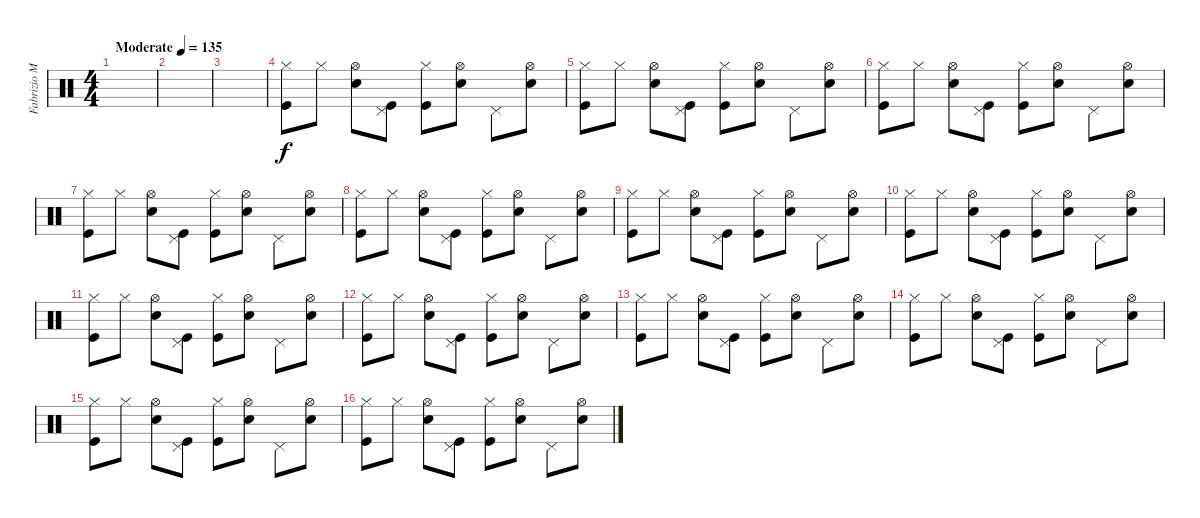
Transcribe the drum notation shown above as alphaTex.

\track ("Fabrizio Moretti" "Fabrizio M") {instrument percussion}
\staff {score}
\articulation defaults
\ts (4 4)
\tempo (135 "Moderate")
\clef neutral
\ks c
|
|
|
("Hi-Hat (closed)" "Kick (hit)").8 "Hi-Hat (closed)".8 ("Hi-Hat (open)" "Electric Snare (hit)").8 ("Pedal Hi-Hat (hit)" "Kick (hit)").8 ("Hi-Hat (closed)" "Kick (hit)").8 ("Hi-Hat (open)" "Electric Snare (hit)").8 "Pedal Hi-Hat (hit)".8 ("Hi-Hat (open)" "Electric Snare (hit)").8 |
("Hi-Hat (closed)" "Kick (hit)").8 "Hi-Hat (closed)".8 ("Hi-Hat (open)" "Electric Snare (hit)").8 ("Pedal Hi-Hat (hit)" "Kick (hit)").8 ("Hi-Hat (closed)" "Kick (hit)").8 ("Hi-Hat (open)" "Electric Snare (hit)").8 "Pedal Hi-Hat (hit)".8 ("Hi-Hat (open)" "Electric Snare (hit)").8 |
("Hi-Hat (closed)" "Kick (hit)").8 "Hi-Hat (closed)".8 ("Hi-Hat (open)" "Electric Snare (hit)").8 ("Pedal Hi-Hat (hit)" "Kick (hit)").8 ("Hi-Hat (closed)" "Kick (hit)").8 ("Hi-Hat (open)" "Electric Snare (hit)").8 "Pedal Hi-Hat (hit)".8 ("Hi-Hat (open)" "Electric Snare (hit)").8 |
("Hi-Hat (closed)" "Kick (hit)").8 "Hi-Hat (closed)".8 ("Hi-Hat (open)" "Electric Snare (hit)").8 ("Pedal Hi-Hat (hit)" "Kick (hit)").8 ("Hi-Hat (closed)" "Kick (hit)").8 ("Hi-Hat (open)" "Electric Snare (hit)").8 "Pedal Hi-Hat (hit)".8 ("Hi-Hat (open)" "Electric Snare (hit)").8 |
("Hi-Hat (closed)" "Kick (hit)").8 "Hi-Hat (closed)".8 ("Hi-Hat (open)" "Electric Snare (hit)").8 ("Pedal Hi-Hat (hit)" "Kick (hit)").8 ("Hi-Hat (closed)" "Kick (hit)").8 ("Hi-Hat (open)" "Electric Snare (hit)").8 "Pedal Hi-Hat (hit)".8 ("Hi-Hat (open)" "Electric Snare (hit)").8 |
("Hi-Hat (closed)" "Kick (hit)").8 "Hi-Hat (closed)".8 ("Hi-Hat (open)" "Electric Snare (hit)").8 ("Pedal Hi-Hat (hit)" "Kick (hit)").8 ("Hi-Hat (closed)" "Kick (hit)").8 ("Hi-Hat (open)" "Electric Snare (hit)").8 "Pedal Hi-Hat (hit)".8 ("Hi-Hat (open)" "Electric Snare (hit)").8 |
("Hi-Hat (closed)" "Kick (hit)").8 "Hi-Hat (closed)".8 ("Hi-Hat (open)" "Electric Snare (hit)").8 ("Pedal Hi-Hat (hit)" "Kick (hit)").8 ("Hi-Hat (closed)" "Kick (hit)").8 ("Hi-Hat (open)" "Electric Snare (hit)").8 "Pedal Hi-Hat (hit)".8 ("Hi-Hat (open)" "Electric Snare (hit)").8 |
("Hi-Hat (closed)" "Kick (hit)").8 "Hi-Hat (closed)".8 ("Hi-Hat (open)" "Electric Snare (hit)").8 ("Pedal Hi-Hat (hit)" "Kick (hit)").8 ("Hi-Hat (closed)" "Kick (hit)").8 ("Hi-Hat (open)" "Electric Snare (hit)").8 "Pedal Hi-Hat (hit)".8 ("Hi-Hat (open)" "Electric Snare (hit)").8 |
("Hi-Hat (closed)" "Kick (hit)").8 "Hi-Hat (closed)".8 ("Hi-Hat (open)" "Electric Snare (hit)").8 ("Pedal Hi-Hat (hit)" "Kick (hit)").8 ("Hi-Hat (closed)" "Kick (hit)").8 ("Hi-Hat (open)" "Electric Snare (hit)").8 "Pedal Hi-Hat (hit)".8 ("Hi-Hat (open)" "Electric Snare (hit)").8 |
("Hi-Hat (closed)" "Kick (hit)").8 "Hi-Hat (closed)".8 ("Hi-Hat (open)" "Electric Snare (hit)").8 ("Pedal Hi-Hat (hit)" "Kick (hit)").8 ("Hi-Hat (closed)" "Kick (hit)").8 ("Hi-Hat (open)" "Electric Snare (hit)").8 "Pedal Hi-Hat (hit)".8 ("Hi-Hat (open)" "Electric Snare (hit)").8 |
("Hi-Hat (closed)" "Kick (hit)").8 "Hi-Hat (closed)".8 ("Hi-Hat (open)" "Electric Snare (hit)").8 ("Pedal Hi-Hat (hit)" "Kick (hit)").8 ("Hi-Hat (closed)" "Kick (hit)").8 ("Hi-Hat (open)" "Electric Snare (hit)").8 "Pedal Hi-Hat (hit)".8 ("Hi-Hat (open)" "Electric Snare (hit)").8 |
("Hi-Hat (closed)" "Kick (hit)").8 "Hi-Hat (closed)".8 ("Hi-Hat (open)" "Electric Snare (hit)").8 ("Pedal Hi-Hat (hit)" "Kick (hit)").8 ("Hi-Hat (closed)" "Kick (hit)").8 ("Hi-Hat (open)" "Electric Snare (hit)").8 "Pedal Hi-Hat (hit)".8 ("Hi-Hat (open)" "Electric Snare (hit)").8 |
("Hi-Hat (closed)" "Kick (hit)").8 "Hi-Hat (closed)".8 ("Hi-Hat (open)" "Electric Snare (hit)").8 ("Pedal Hi-Hat (hit)" "Kick (hit)").8 ("Hi-Hat (closed)" "Kick (hit)").8 ("Hi-Hat (open)" "Electric Snare (hit)").8 "Pedal Hi-Hat (hit)".8 ("Hi-Hat (open)" "Electric Snare (hit)").8
